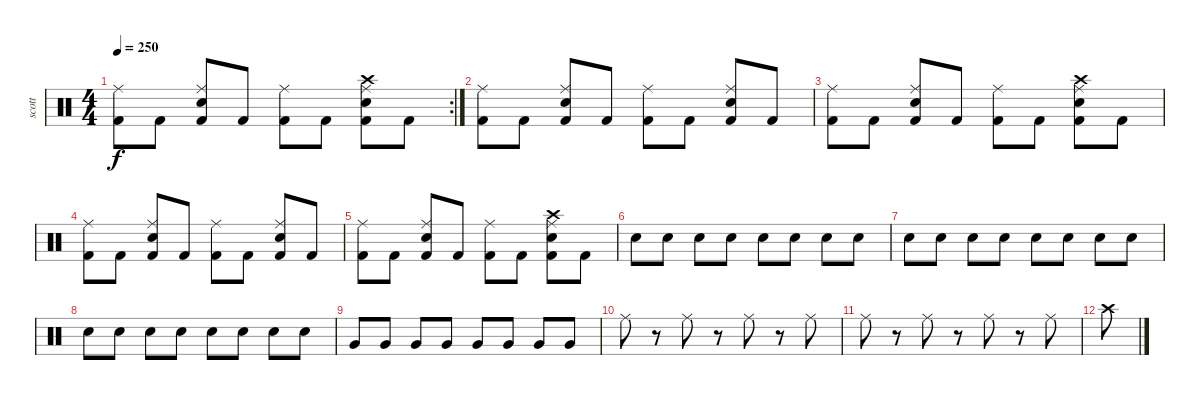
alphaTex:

\track ("scott" "scott") {instrument percussion bank 10}
\staff {score}
\articulation defaults
\rc 2
\ts (4 4)
\tempo 250
\clef neutral
\ks c
("Kick (hit) 2" "Ride (middle)").8{dy f} "Kick (hit) 2".8 ("Kick (hit) 2" "Snare (hit) 2" "Ride (middle)").8 "Kick (hit) 2".8 ("Kick (hit) 2" "Ride (middle)").8 "Kick (hit) 2".8 ("Kick (hit) 2" "Snare (hit) 2" "Ride (middle)" "Crash high (hit)").8 "Kick (hit) 2".8 |
("Kick (hit) 2" "Ride (middle)").8 "Kick (hit) 2".8 ("Kick (hit) 2" "Snare (hit) 2" "Ride (middle)").8 "Kick (hit) 2".8 ("Kick (hit) 2" "Ride (middle)").8 "Kick (hit) 2".8 ("Kick (hit) 2" "Snare (hit) 2" "Ride (middle)").8 "Kick (hit) 2".8 |
("Kick (hit) 2" "Ride (middle)").8 "Kick (hit) 2".8 ("Kick (hit) 2" "Snare (hit) 2" "Ride (middle)").8 "Kick (hit) 2".8 ("Kick (hit) 2" "Ride (middle)").8 "Kick (hit) 2".8 ("Kick (hit) 2" "Snare (hit) 2" "Ride (middle)" "Crash high (hit)").8 "Kick (hit) 2".8 |
("Kick (hit) 2" "Ride (middle)").8 "Kick (hit) 2".8 ("Kick (hit) 2" "Snare (hit) 2" "Ride (middle)").8 "Kick (hit) 2".8 ("Kick (hit) 2" "Ride (middle)").8 "Kick (hit) 2".8 ("Kick (hit) 2" "Snare (hit) 2" "Ride (middle)").8 "Kick (hit) 2".8 |
("Kick (hit) 2" "Ride (middle)").8 "Kick (hit) 2".8 ("Kick (hit) 2" "Snare (hit) 2" "Ride (middle)").8 "Kick (hit) 2".8 ("Kick (hit) 2" "Ride (middle)").8 "Kick (hit) 2".8 ("Kick (hit) 2" "Snare (hit) 2" "Ride (middle)" "Crash high (hit)").8 "Kick (hit) 2".8 |
"Snare (hit) 2".8 "Snare (hit) 2".8 "Snare (hit) 2".8 "Snare (hit) 2".8 "Snare (hit) 2".8 "Snare (hit) 2".8 "Snare (hit) 2".8 "Snare (hit) 2".8 |
"Snare (hit) 2".8 "Snare (hit) 2".8 "Snare (hit) 2".8 "Snare (hit) 2".8 "Snare (hit) 2".8 "Snare (hit) 2".8 "Snare (hit) 2".8 "Snare (hit) 2".8 |
"Snare (hit) 2".8 "Snare (hit) 2".8 "Snare (hit) 2".8 "Snare (hit) 2".8 "Snare (hit) 2".8 "Snare (hit) 2".8 "Snare (hit) 2".8 "Snare (hit) 2".8 |
"Very Low Tom (hit)".8 "Very Low Tom (hit)".8 "Very Low Tom (hit)".8 "Very Low Tom (hit)".8 "Very Low Tom (hit)".8 "Very Low Tom (hit)".8 "Very Low Tom (hit)".8 "Very Low Tom (hit)".8 |
"Ride (middle)".8 r.8 "Ride (middle)".8 r.8 "Ride (middle)".8 r.8 "Ride (middle)".8 |
"Ride (middle)".8 r.8 "Ride (middle)".8 r.8 "Ride (middle)".8 r.8 "Ride (middle)".8 |
"Crash high (hit)".8
